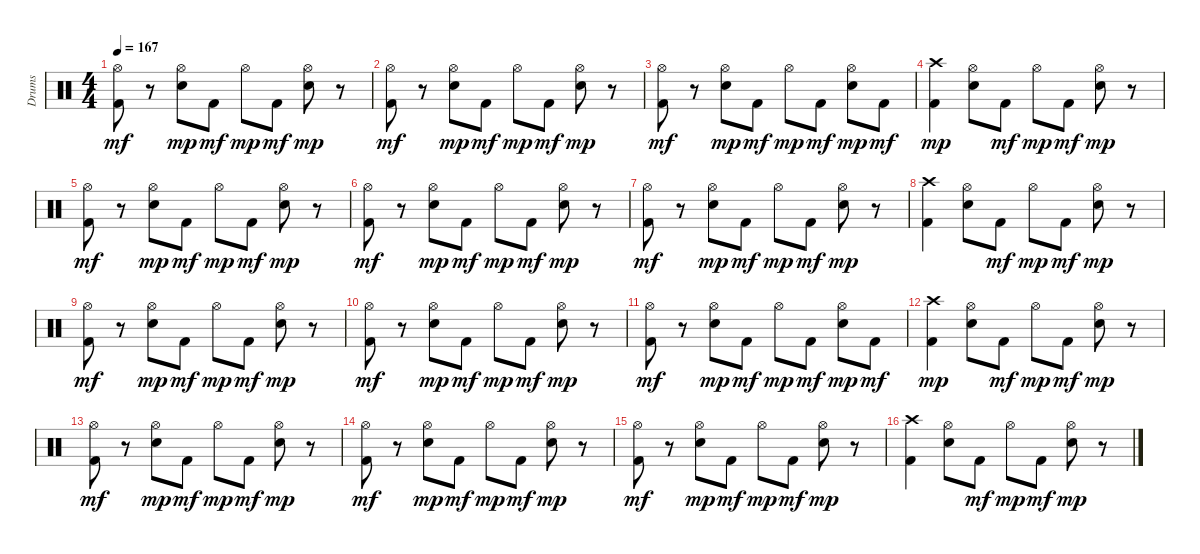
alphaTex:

\track ("Drums" "Drums") {instrument percussion}
\staff {score}
\articulation defaults
\ts (4 4)
\tempo 167
\clef neutral
\ks c
("Hi-Hat (open)" "Kick (hit) 2").8{dy mf} r.8 ("Electric Snare (hit)" "Hi-Hat (open)").8{dy mp} "Kick (hit) 2".8{dy mf} "Hi-Hat (open)".8{dy mp} "Kick (hit) 2".8{dy mf} ("Electric Snare (hit)" "Hi-Hat (open)").8{dy mp} r.8 |
("Hi-Hat (open)" "Kick (hit) 2").8{dy mf} r.8 ("Electric Snare (hit)" "Hi-Hat (open)").8{dy mp} "Kick (hit) 2".8{dy mf} "Hi-Hat (open)".8{dy mp} "Kick (hit) 2".8{dy mf} ("Electric Snare (hit)" "Hi-Hat (open)").8{dy mp} r.8 |
("Hi-Hat (open)" "Kick (hit) 2").8{dy mf} r.8 ("Electric Snare (hit)" "Hi-Hat (open)").8{dy mp} "Kick (hit) 2".8{dy mf} "Hi-Hat (open)".8{dy mp} "Kick (hit) 2".8{dy mf} ("Electric Snare (hit)" "Hi-Hat (open)").8{dy mp} "Kick (hit) 2".8{dy mf} |
("Kick (hit) 2" "Crash high (hit)").4{dy mp} ("Electric Snare (hit)" "Hi-Hat (open)").8 "Kick (hit) 2".8{dy mf} "Hi-Hat (open)".8{dy mp} "Kick (hit) 2".8{dy mf} ("Electric Snare (hit)" "Hi-Hat (open)").8{dy mp} r.8 |
("Hi-Hat (open)" "Kick (hit) 2").8{dy mf} r.8 ("Electric Snare (hit)" "Hi-Hat (open)").8{dy mp} "Kick (hit) 2".8{dy mf} "Hi-Hat (open)".8{dy mp} "Kick (hit) 2".8{dy mf} ("Electric Snare (hit)" "Hi-Hat (open)").8{dy mp} r.8 |
("Hi-Hat (open)" "Kick (hit) 2").8{dy mf} r.8 ("Electric Snare (hit)" "Hi-Hat (open)").8{dy mp} "Kick (hit) 2".8{dy mf} "Hi-Hat (open)".8{dy mp} "Kick (hit) 2".8{dy mf} ("Electric Snare (hit)" "Hi-Hat (open)").8{dy mp} r.8 |
("Hi-Hat (open)" "Kick (hit) 2").8{dy mf} r.8 ("Electric Snare (hit)" "Hi-Hat (open)").8{dy mp} "Kick (hit) 2".8{dy mf} "Hi-Hat (open)".8{dy mp} "Kick (hit) 2".8{dy mf} ("Electric Snare (hit)" "Hi-Hat (open)").8{dy mp} r.8 |
("Kick (hit) 2" "Crash high (hit)").4 ("Electric Snare (hit)" "Hi-Hat (open)").8 "Kick (hit) 2".8{dy mf} "Hi-Hat (open)".8{dy mp} "Kick (hit) 2".8{dy mf} ("Electric Snare (hit)" "Hi-Hat (open)").8{dy mp} r.8 |
("Hi-Hat (open)" "Kick (hit) 2").8{dy mf} r.8 ("Electric Snare (hit)" "Hi-Hat (open)").8{dy mp} "Kick (hit) 2".8{dy mf} "Hi-Hat (open)".8{dy mp} "Kick (hit) 2".8{dy mf} ("Electric Snare (hit)" "Hi-Hat (open)").8{dy mp} r.8 |
("Hi-Hat (open)" "Kick (hit) 2").8{dy mf} r.8 ("Electric Snare (hit)" "Hi-Hat (open)").8{dy mp} "Kick (hit) 2".8{dy mf} "Hi-Hat (open)".8{dy mp} "Kick (hit) 2".8{dy mf} ("Electric Snare (hit)" "Hi-Hat (open)").8{dy mp} r.8 |
("Hi-Hat (open)" "Kick (hit) 2").8{dy mf} r.8 ("Electric Snare (hit)" "Hi-Hat (open)").8{dy mp} "Kick (hit) 2".8{dy mf} "Hi-Hat (open)".8{dy mp} "Kick (hit) 2".8{dy mf} ("Electric Snare (hit)" "Hi-Hat (open)").8{dy mp} "Kick (hit) 2".8{dy mf} |
("Kick (hit) 2" "Crash high (hit)").4{dy mp} ("Electric Snare (hit)" "Hi-Hat (open)").8 "Kick (hit) 2".8{dy mf} "Hi-Hat (open)".8{dy mp} "Kick (hit) 2".8{dy mf} ("Electric Snare (hit)" "Hi-Hat (open)").8{dy mp} r.8 |
("Hi-Hat (open)" "Kick (hit) 2").8{dy mf} r.8 ("Electric Snare (hit)" "Hi-Hat (open)").8{dy mp} "Kick (hit) 2".8{dy mf} "Hi-Hat (open)".8{dy mp} "Kick (hit) 2".8{dy mf} ("Electric Snare (hit)" "Hi-Hat (open)").8{dy mp} r.8 |
("Hi-Hat (open)" "Kick (hit) 2").8{dy mf} r.8 ("Electric Snare (hit)" "Hi-Hat (open)").8{dy mp} "Kick (hit) 2".8{dy mf} "Hi-Hat (open)".8{dy mp} "Kick (hit) 2".8{dy mf} ("Electric Snare (hit)" "Hi-Hat (open)").8{dy mp} r.8 |
("Hi-Hat (open)" "Kick (hit) 2").8{dy mf} r.8 ("Electric Snare (hit)" "Hi-Hat (open)").8{dy mp} "Kick (hit) 2".8{dy mf} "Hi-Hat (open)".8{dy mp} "Kick (hit) 2".8{dy mf} ("Electric Snare (hit)" "Hi-Hat (open)").8{dy mp} r.8 |
("Kick (hit) 2" "Crash high (hit)").4 ("Electric Snare (hit)" "Hi-Hat (open)").8 "Kick (hit) 2".8{dy mf} "Hi-Hat (open)".8{dy mp} "Kick (hit) 2".8{dy mf} ("Electric Snare (hit)" "Hi-Hat (open)").8{dy mp} r.8
